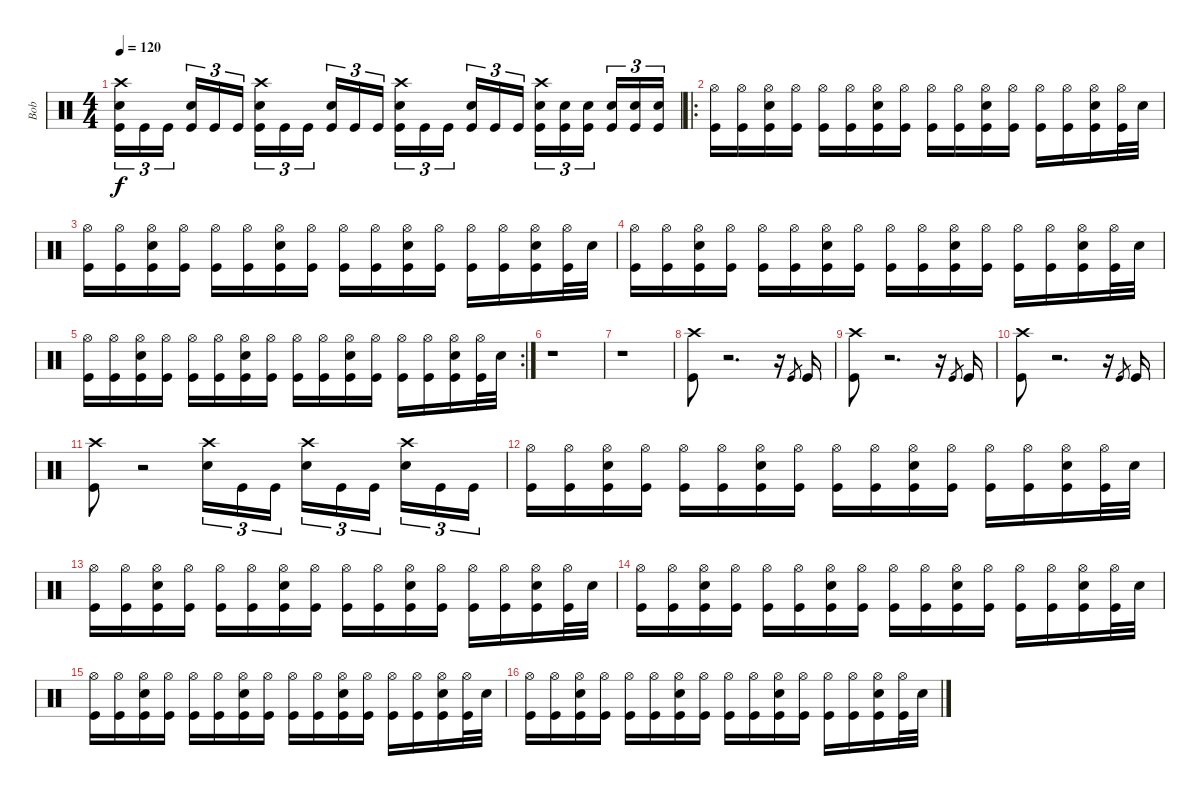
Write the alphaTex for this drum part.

\track ("Bob" "Bob") {instrument percussion}
\staff {score}
\articulation defaults
\ts (4 4)
\tempo 120
\clef neutral
\ks c
("Crash high (hit)" "Snare (hit) 2" "Kick (hit)").16{tu (3 2) dy f} "Kick (hit)".16{tu (3 2)} "Kick (hit)".16{tu (3 2)} ("Snare (hit) 2" "Kick (hit)").16{tu (3 2)} "Kick (hit)".16{tu (3 2)} "Kick (hit)".16{tu (3 2)} ("Crash high (hit)" "Snare (hit) 2" "Kick (hit)").16{tu (3 2)} "Kick (hit)".16{tu (3 2)} "Kick (hit)".16{tu (3 2)} ("Snare (hit) 2" "Kick (hit)").16{tu (3 2)} "Kick (hit)".16{tu (3 2)} "Kick (hit)".16{tu (3 2)} ("Crash high (hit)" "Snare (hit) 2" "Kick (hit)").16{tu (3 2)} "Kick (hit)".16{tu (3 2)} "Kick (hit)".16{tu (3 2)} ("Snare (hit) 2" "Kick (hit)").16{tu (3 2)} "Kick (hit)".16{tu (3 2)} "Kick (hit)".16{tu (3 2)} ("Crash high (hit)" "Snare (hit) 2" "Kick (hit)").16{tu (3 2)} ("Snare (hit) 2" "Kick (hit)").16{tu (3 2)} ("Snare (hit) 2" "Kick (hit)").16{tu (3 2)} ("Snare (hit) 2" "Kick (hit)").16{tu (3 2)} ("Snare (hit) 2" "Kick (hit)").16{tu (3 2)} ("Snare (hit) 2" "Kick (hit)").16{tu (3 2)} |
\ro
("Hi-Hat (open)" "Kick (hit)").16 ("Hi-Hat (open)" "Kick (hit)").16 ("Hi-Hat (open)" "Snare (hit) 2" "Kick (hit)").16 ("Hi-Hat (open)" "Kick (hit)").16 ("Hi-Hat (open)" "Kick (hit)").16 ("Hi-Hat (open)" "Kick (hit)").16 ("Hi-Hat (open)" "Snare (hit) 2" "Kick (hit)").16 ("Hi-Hat (open)" "Kick (hit)").16 ("Hi-Hat (open)" "Kick (hit)").16 ("Hi-Hat (open)" "Kick (hit)").16 ("Hi-Hat (open)" "Snare (hit) 2" "Kick (hit)").16 ("Hi-Hat (open)" "Kick (hit)").16 ("Hi-Hat (open)" "Kick (hit)").16 ("Hi-Hat (open)" "Kick (hit)").16 ("Hi-Hat (open)" "Snare (hit) 2" "Kick (hit)").16 ("Hi-Hat (open)" "Kick (hit)").32 "Snare (hit) 2".32 |
("Hi-Hat (open)" "Kick (hit)").16 ("Hi-Hat (open)" "Kick (hit)").16 ("Hi-Hat (open)" "Snare (hit) 2" "Kick (hit)").16 ("Hi-Hat (open)" "Kick (hit)").16 ("Hi-Hat (open)" "Kick (hit)").16 ("Hi-Hat (open)" "Kick (hit)").16 ("Hi-Hat (open)" "Snare (hit) 2" "Kick (hit)").16 ("Hi-Hat (open)" "Kick (hit)").16 ("Hi-Hat (open)" "Kick (hit)").16 ("Hi-Hat (open)" "Kick (hit)").16 ("Hi-Hat (open)" "Snare (hit) 2" "Kick (hit)").16 ("Hi-Hat (open)" "Kick (hit)").16 ("Hi-Hat (open)" "Kick (hit)").16 ("Hi-Hat (open)" "Kick (hit)").16 ("Hi-Hat (open)" "Snare (hit) 2" "Kick (hit)").16 ("Hi-Hat (open)" "Kick (hit)").32 "Snare (hit) 2".32 |
("Hi-Hat (open)" "Kick (hit)").16 ("Hi-Hat (open)" "Kick (hit)").16 ("Hi-Hat (open)" "Snare (hit) 2" "Kick (hit)").16 ("Hi-Hat (open)" "Kick (hit)").16 ("Hi-Hat (open)" "Kick (hit)").16 ("Hi-Hat (open)" "Kick (hit)").16 ("Hi-Hat (open)" "Snare (hit) 2" "Kick (hit)").16 ("Hi-Hat (open)" "Kick (hit)").16 ("Hi-Hat (open)" "Kick (hit)").16 ("Hi-Hat (open)" "Kick (hit)").16 ("Hi-Hat (open)" "Snare (hit) 2" "Kick (hit)").16 ("Hi-Hat (open)" "Kick (hit)").16 ("Hi-Hat (open)" "Kick (hit)").16 ("Hi-Hat (open)" "Kick (hit)").16 ("Hi-Hat (open)" "Snare (hit) 2" "Kick (hit)").16 ("Hi-Hat (open)" "Kick (hit)").32 "Snare (hit) 2".32 |
\rc 2
("Hi-Hat (open)" "Kick (hit)").16 ("Hi-Hat (open)" "Kick (hit)").16 ("Hi-Hat (open)" "Snare (hit) 2" "Kick (hit)").16 ("Hi-Hat (open)" "Kick (hit)").16 ("Hi-Hat (open)" "Kick (hit)").16 ("Hi-Hat (open)" "Kick (hit)").16 ("Hi-Hat (open)" "Snare (hit) 2" "Kick (hit)").16 ("Hi-Hat (open)" "Kick (hit)").16 ("Hi-Hat (open)" "Kick (hit)").16 ("Hi-Hat (open)" "Kick (hit)").16 ("Hi-Hat (open)" "Snare (hit) 2" "Kick (hit)").16 ("Hi-Hat (open)" "Kick (hit)").16 ("Hi-Hat (open)" "Kick (hit)").16 ("Hi-Hat (open)" "Kick (hit)").16 ("Hi-Hat (open)" "Snare (hit) 2" "Kick (hit)").16 ("Hi-Hat (open)" "Kick (hit)").32 "Snare (hit) 2".32 |
r.1 |
r.1 |
("Crash high (hit)" "Kick (hit)").8 r.2{d} r.16 "Kick (hit)".8{gr} "Kick (hit)".16 |
("Crash high (hit)" "Kick (hit)").8 r.2{d} r.16 "Kick (hit)".8{gr} "Kick (hit)".16 |
("Crash high (hit)" "Kick (hit)").8 r.2{d} r.16 "Kick (hit)".8{gr} "Kick (hit)".16 |
("Crash high (hit)" "Kick (hit)").8 r.2 ("Crash high (hit)" "Snare (hit) 2").16{tu (3 2)} "Kick (hit)".16{tu (3 2)} "Kick (hit)".16{tu (3 2)} ("Crash high (hit)" "Snare (hit) 2").16{tu (3 2)} "Kick (hit)".16{tu (3 2)} "Kick (hit)".16{tu (3 2)} ("Crash high (hit)" "Snare (hit) 2").16{tu (3 2)} "Kick (hit)".16{tu (3 2)} "Kick (hit)".16{tu (3 2)} |
("Hi-Hat (open)" "Kick (hit)").16 ("Hi-Hat (open)" "Kick (hit)").16 ("Hi-Hat (open)" "Snare (hit) 2" "Kick (hit)").16 ("Hi-Hat (open)" "Kick (hit)").16 ("Hi-Hat (open)" "Kick (hit)").16 ("Hi-Hat (open)" "Kick (hit)").16 ("Hi-Hat (open)" "Snare (hit) 2" "Kick (hit)").16 ("Hi-Hat (open)" "Kick (hit)").16 ("Hi-Hat (open)" "Kick (hit)").16 ("Hi-Hat (open)" "Kick (hit)").16 ("Hi-Hat (open)" "Snare (hit) 2" "Kick (hit)").16 ("Hi-Hat (open)" "Kick (hit)").16 ("Hi-Hat (open)" "Kick (hit)").16 ("Hi-Hat (open)" "Kick (hit)").16 ("Hi-Hat (open)" "Snare (hit) 2" "Kick (hit)").16 ("Hi-Hat (open)" "Kick (hit)").32 "Snare (hit) 2".32 |
("Hi-Hat (open)" "Kick (hit)").16 ("Hi-Hat (open)" "Kick (hit)").16 ("Hi-Hat (open)" "Snare (hit) 2" "Kick (hit)").16 ("Hi-Hat (open)" "Kick (hit)").16 ("Hi-Hat (open)" "Kick (hit)").16 ("Hi-Hat (open)" "Kick (hit)").16 ("Hi-Hat (open)" "Snare (hit) 2" "Kick (hit)").16 ("Hi-Hat (open)" "Kick (hit)").16 ("Hi-Hat (open)" "Kick (hit)").16 ("Hi-Hat (open)" "Kick (hit)").16 ("Hi-Hat (open)" "Snare (hit) 2" "Kick (hit)").16 ("Hi-Hat (open)" "Kick (hit)").16 ("Hi-Hat (open)" "Kick (hit)").16 ("Hi-Hat (open)" "Kick (hit)").16 ("Hi-Hat (open)" "Snare (hit) 2" "Kick (hit)").16 ("Hi-Hat (open)" "Kick (hit)").32 "Snare (hit) 2".32 |
("Hi-Hat (open)" "Kick (hit)").16 ("Hi-Hat (open)" "Kick (hit)").16 ("Hi-Hat (open)" "Snare (hit) 2" "Kick (hit)").16 ("Hi-Hat (open)" "Kick (hit)").16 ("Hi-Hat (open)" "Kick (hit)").16 ("Hi-Hat (open)" "Kick (hit)").16 ("Hi-Hat (open)" "Snare (hit) 2" "Kick (hit)").16 ("Hi-Hat (open)" "Kick (hit)").16 ("Hi-Hat (open)" "Kick (hit)").16 ("Hi-Hat (open)" "Kick (hit)").16 ("Hi-Hat (open)" "Snare (hit) 2" "Kick (hit)").16 ("Hi-Hat (open)" "Kick (hit)").16 ("Hi-Hat (open)" "Kick (hit)").16 ("Hi-Hat (open)" "Kick (hit)").16 ("Hi-Hat (open)" "Snare (hit) 2" "Kick (hit)").16 ("Hi-Hat (open)" "Kick (hit)").32 "Snare (hit) 2".32 |
("Hi-Hat (open)" "Kick (hit)").16 ("Hi-Hat (open)" "Kick (hit)").16 ("Hi-Hat (open)" "Snare (hit) 2" "Kick (hit)").16 ("Hi-Hat (open)" "Kick (hit)").16 ("Hi-Hat (open)" "Kick (hit)").16 ("Hi-Hat (open)" "Kick (hit)").16 ("Hi-Hat (open)" "Snare (hit) 2" "Kick (hit)").16 ("Hi-Hat (open)" "Kick (hit)").16 ("Hi-Hat (open)" "Kick (hit)").16 ("Hi-Hat (open)" "Kick (hit)").16 ("Hi-Hat (open)" "Snare (hit) 2" "Kick (hit)").16 ("Hi-Hat (open)" "Kick (hit)").16 ("Hi-Hat (open)" "Kick (hit)").16 ("Hi-Hat (open)" "Kick (hit)").16 ("Hi-Hat (open)" "Snare (hit) 2" "Kick (hit)").16 ("Hi-Hat (open)" "Kick (hit)").32 "Snare (hit) 2".32 |
("Hi-Hat (open)" "Kick (hit)").16 ("Hi-Hat (open)" "Kick (hit)").16 ("Hi-Hat (open)" "Snare (hit) 2" "Kick (hit)").16 ("Hi-Hat (open)" "Kick (hit)").16 ("Hi-Hat (open)" "Kick (hit)").16 ("Hi-Hat (open)" "Kick (hit)").16 ("Hi-Hat (open)" "Snare (hit) 2" "Kick (hit)").16 ("Hi-Hat (open)" "Kick (hit)").16 ("Hi-Hat (open)" "Kick (hit)").16 ("Hi-Hat (open)" "Kick (hit)").16 ("Hi-Hat (open)" "Snare (hit) 2" "Kick (hit)").16 ("Hi-Hat (open)" "Kick (hit)").16 ("Hi-Hat (open)" "Kick (hit)").16 ("Hi-Hat (open)" "Kick (hit)").16 ("Hi-Hat (open)" "Snare (hit) 2" "Kick (hit)").16 ("Hi-Hat (open)" "Kick (hit)").32 "Snare (hit) 2".32
